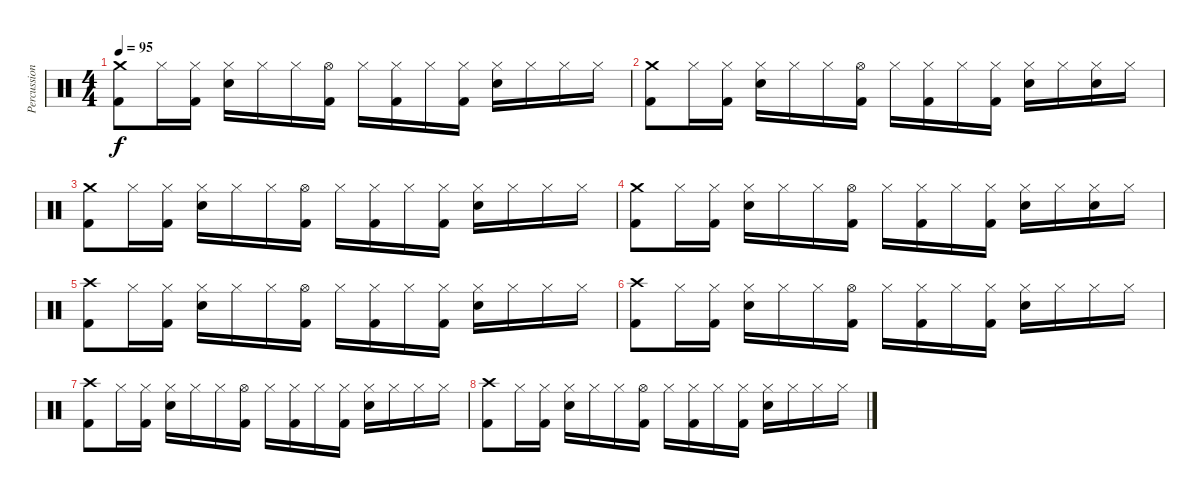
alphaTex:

\track ("Percussion" "Percussion") {instrument percussion}
\staff {score}
\articulation defaults
\ts (4 4)
\tempo 95
\clef neutral
\ks c
("Crash medium (hit)" "Kick (hit) 2").8{dy f} "Hi-Hat (closed)".16 ("Hi-Hat (closed)" "Kick (hit) 2").16 ("Hi-Hat (closed)" "Electric Snare (hit)").16 "Hi-Hat (closed)".16 "Hi-Hat (closed)".16 ("Hi-Hat (open)" "Kick (hit) 2").16 "Hi-Hat (closed)".16 ("Hi-Hat (closed)" "Kick (hit) 2").16 "Hi-Hat (closed)".16 ("Hi-Hat (closed)" "Kick (hit) 2").16 ("Hi-Hat (closed)" "Electric Snare (hit)").16 "Hi-Hat (closed)".16 "Hi-Hat (closed)".16 "Hi-Hat (closed)".16 |
("Crash medium (hit)" "Kick (hit) 2").8 "Hi-Hat (closed)".16 ("Hi-Hat (closed)" "Kick (hit) 2").16 ("Hi-Hat (closed)" "Electric Snare (hit)").16 "Hi-Hat (closed)".16 "Hi-Hat (closed)".16 ("Hi-Hat (open)" "Kick (hit) 2").16 "Hi-Hat (closed)".16 ("Hi-Hat (closed)" "Kick (hit) 2").16 "Hi-Hat (closed)".16 ("Hi-Hat (closed)" "Kick (hit) 2").16 ("Hi-Hat (closed)" "Electric Snare (hit)").16 "Hi-Hat (closed)".16 ("Hi-Hat (closed)" "Electric Snare (hit)").16 "Hi-Hat (closed)".16 |
("Crash medium (hit)" "Kick (hit) 2").8 "Hi-Hat (closed)".16 ("Hi-Hat (closed)" "Kick (hit) 2").16 ("Hi-Hat (closed)" "Electric Snare (hit)").16 "Hi-Hat (closed)".16 "Hi-Hat (closed)".16 ("Hi-Hat (open)" "Kick (hit) 2").16 "Hi-Hat (closed)".16 ("Hi-Hat (closed)" "Kick (hit) 2").16 "Hi-Hat (closed)".16 ("Hi-Hat (closed)" "Kick (hit) 2").16 ("Hi-Hat (closed)" "Electric Snare (hit)").16 "Hi-Hat (closed)".16 "Hi-Hat (closed)".16 "Hi-Hat (closed)".16 |
("Crash medium (hit)" "Kick (hit) 2").8 "Hi-Hat (closed)".16 ("Hi-Hat (closed)" "Kick (hit) 2").16 ("Hi-Hat (closed)" "Electric Snare (hit)").16 "Hi-Hat (closed)".16 "Hi-Hat (closed)".16 ("Hi-Hat (open)" "Kick (hit) 2").16 "Hi-Hat (closed)".16 ("Hi-Hat (closed)" "Kick (hit) 2").16 "Hi-Hat (closed)".16 ("Hi-Hat (closed)" "Kick (hit) 2").16 ("Hi-Hat (closed)" "Electric Snare (hit)").16 "Hi-Hat (closed)".16 ("Hi-Hat (closed)" "Electric Snare (hit)").16 "Hi-Hat (closed)".16 |
("Crash high (hit)" "Kick (hit) 2").8 "Hi-Hat (closed)".16 ("Hi-Hat (closed)" "Kick (hit) 2").16 ("Hi-Hat (closed)" "Electric Snare (hit)").16 "Hi-Hat (closed)".16 "Hi-Hat (closed)".16 ("Hi-Hat (open)" "Kick (hit) 2").16 "Hi-Hat (closed)".16 ("Hi-Hat (closed)" "Kick (hit) 2").16 "Hi-Hat (closed)".16 ("Hi-Hat (closed)" "Kick (hit) 2").16 ("Hi-Hat (closed)" "Electric Snare (hit)").16 "Hi-Hat (closed)".16 "Hi-Hat (closed)".16 "Hi-Hat (closed)".16 |
("Crash high (hit)" "Kick (hit) 2").8 "Hi-Hat (closed)".16 ("Hi-Hat (closed)" "Kick (hit) 2").16 ("Hi-Hat (closed)" "Electric Snare (hit)").16 "Hi-Hat (closed)".16 "Hi-Hat (closed)".16 ("Hi-Hat (open)" "Kick (hit) 2").16 "Hi-Hat (closed)".16 ("Hi-Hat (closed)" "Kick (hit) 2").16 "Hi-Hat (closed)".16 ("Hi-Hat (closed)" "Kick (hit) 2").16 ("Hi-Hat (closed)" "Electric Snare (hit)").16 "Hi-Hat (closed)".16 "Hi-Hat (closed)".16 "Hi-Hat (closed)".16 |
("Crash high (hit)" "Kick (hit) 2").8 "Hi-Hat (closed)".16 ("Hi-Hat (closed)" "Kick (hit) 2").16 ("Hi-Hat (closed)" "Electric Snare (hit)").16 "Hi-Hat (closed)".16 "Hi-Hat (closed)".16 ("Hi-Hat (open)" "Kick (hit) 2").16 "Hi-Hat (closed)".16 ("Hi-Hat (closed)" "Kick (hit) 2").16 "Hi-Hat (closed)".16 ("Hi-Hat (closed)" "Kick (hit) 2").16 ("Hi-Hat (closed)" "Electric Snare (hit)").16 "Hi-Hat (closed)".16 "Hi-Hat (closed)".16 "Hi-Hat (closed)".16 |
("Crash high (hit)" "Kick (hit) 2").8 "Hi-Hat (closed)".16 ("Hi-Hat (closed)" "Kick (hit) 2").16 ("Hi-Hat (closed)" "Electric Snare (hit)").16 "Hi-Hat (closed)".16 "Hi-Hat (closed)".16 ("Hi-Hat (open)" "Kick (hit) 2").16 "Hi-Hat (closed)".16 ("Hi-Hat (closed)" "Kick (hit) 2").16 "Hi-Hat (closed)".16 ("Hi-Hat (closed)" "Kick (hit) 2").16 ("Hi-Hat (closed)" "Electric Snare (hit)").16 "Hi-Hat (closed)".16 "Hi-Hat (closed)".16 "Hi-Hat (closed)".16
